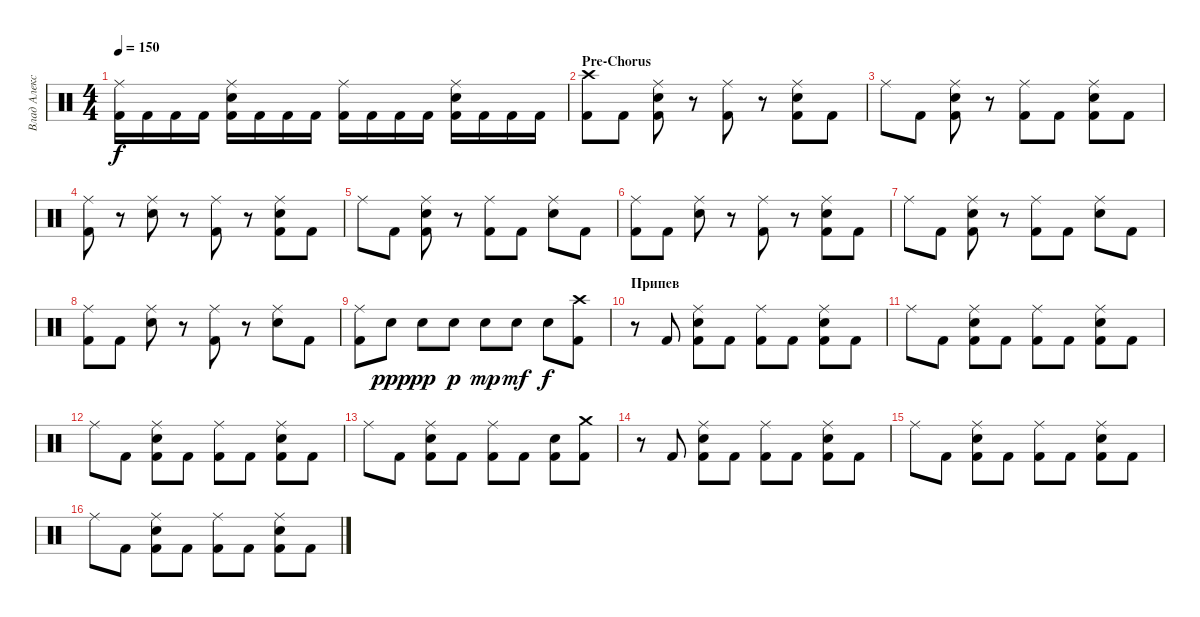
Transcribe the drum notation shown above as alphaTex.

\track ("Влад Алексеенко" "Влад Алекс") {instrument percussion}
\staff {score}
\articulation defaults
\ts (4 4)
\tempo 150
\clef neutral
\ks c
("Ride (middle)" "Kick (hit) 2").16{dy f} "Kick (hit) 2".16 "Kick (hit) 2".16 "Kick (hit) 2".16 ("Ride (middle)" "Electric Snare (hit)" "Kick (hit) 2").16 "Kick (hit) 2".16 "Kick (hit) 2".16 "Kick (hit) 2".16 ("Ride (middle)" "Kick (hit) 2").16 "Kick (hit) 2".16 "Kick (hit) 2".16 "Kick (hit) 2".16 ("Ride (middle)" "Electric Snare (hit)" "Kick (hit) 2").16 "Kick (hit) 2".16 "Kick (hit) 2".16 "Kick (hit) 2".16 |
\section ("" "Pre-Chorus")
("Crash high (hit)" "Kick (hit) 2").8 "Kick (hit) 2".8 ("Ride (middle)" "Electric Snare (hit)" "Kick (hit) 2").8 r.8 ("Ride (middle)" "Kick (hit) 2").8 r.8 ("Ride (middle)" "Electric Snare (hit)" "Kick (hit) 2").8 "Kick (hit) 2".8 |
"Ride (middle)".8 "Kick (hit) 2".8 ("Ride (middle)" "Electric Snare (hit)" "Kick (hit) 2").8 r.8 ("Ride (middle)" "Kick (hit) 2").8 "Kick (hit) 2".8 ("Ride (middle)" "Electric Snare (hit)" "Kick (hit) 2").8 "Kick (hit) 2".8 |
("Ride (middle)" "Kick (hit) 2").8 r.8 ("Ride (middle)" "Electric Snare (hit)").8 r.8 ("Ride (middle)" "Kick (hit) 2").8 r.8 ("Ride (middle)" "Electric Snare (hit)" "Kick (hit) 2").8 "Kick (hit) 2".8 |
"Ride (middle)".8 "Kick (hit) 2".8 ("Ride (middle)" "Electric Snare (hit)" "Kick (hit) 2").8 r.8 ("Ride (middle)" "Kick (hit) 2").8 "Kick (hit) 2".8 ("Ride (middle)" "Electric Snare (hit)").8 "Kick (hit) 2".8 |
("Ride (middle)" "Kick (hit) 2").8 "Kick (hit) 2".8 ("Ride (middle)" "Electric Snare (hit)").8 r.8 ("Ride (middle)" "Kick (hit) 2").8 r.8 ("Ride (middle)" "Electric Snare (hit)" "Kick (hit) 2").8 "Kick (hit) 2".8 |
"Ride (middle)".8 "Kick (hit) 2".8 ("Ride (middle)" "Electric Snare (hit)" "Kick (hit) 2").8 r.8 ("Ride (middle)" "Kick (hit) 2").8 "Kick (hit) 2".8 ("Ride (middle)" "Electric Snare (hit)").8 "Kick (hit) 2".8 |
("Ride (middle)" "Kick (hit) 2").8 "Kick (hit) 2".8 ("Ride (middle)" "Electric Snare (hit)").8 r.8 ("Ride (middle)" "Kick (hit) 2").8 r.8 ("Ride (middle)" "Electric Snare (hit)").8 "Kick (hit) 2".8 |
("Ride (middle)" "Kick (hit) 2").8 "Electric Snare (hit)".8{dy ppp} "Electric Snare (hit)".8{dy pp} "Electric Snare (hit)".8{dy p} "Electric Snare (hit)".8{dy mp} "Electric Snare (hit)".8{dy mf} "Electric Snare (hit)".8{dy f} ("Crash high (hit)" "Kick (hit) 2").8 |
\section ("" "Припев")
r.8 "Kick (hit) 2".8 ("Ride (middle)" "Electric Snare (hit)" "Kick (hit) 2").8 "Kick (hit) 2".8 ("Ride (middle)" "Kick (hit) 2").8 "Kick (hit) 2".8 ("Ride (middle)" "Electric Snare (hit)" "Kick (hit) 2").8 "Kick (hit) 2".8 |
"Ride (middle)".8 "Kick (hit) 2".8 ("Ride (middle)" "Electric Snare (hit)" "Kick (hit) 2").8 "Kick (hit) 2".8 ("Ride (middle)" "Kick (hit) 2").8 "Kick (hit) 2".8 ("Ride (middle)" "Electric Snare (hit)" "Kick (hit) 2").8 "Kick (hit) 2".8 |
"Ride (middle)".8 "Kick (hit) 2".8 ("Ride (middle)" "Electric Snare (hit)" "Kick (hit) 2").8 "Kick (hit) 2".8 ("Ride (middle)" "Kick (hit) 2").8 "Kick (hit) 2".8 ("Ride (middle)" "Electric Snare (hit)" "Kick (hit) 2").8 "Kick (hit) 2".8 |
"Ride (middle)".8 "Kick (hit) 2".8 ("Ride (middle)" "Electric Snare (hit)" "Kick (hit) 2").8 "Kick (hit) 2".8 ("Ride (middle)" "Kick (hit) 2").8 "Kick (hit) 2".8 ("Electric Snare (hit)" "Kick (hit) 2").8 ("Crash medium (hit)" "Kick (hit) 2").8 |
r.8 "Kick (hit) 2".8 ("Ride (middle)" "Electric Snare (hit)" "Kick (hit) 2").8 "Kick (hit) 2".8 ("Ride (middle)" "Kick (hit) 2").8 "Kick (hit) 2".8 ("Ride (middle)" "Electric Snare (hit)" "Kick (hit) 2").8 "Kick (hit) 2".8 |
"Ride (middle)".8 "Kick (hit) 2".8 ("Ride (middle)" "Electric Snare (hit)" "Kick (hit) 2").8 "Kick (hit) 2".8 ("Ride (middle)" "Kick (hit) 2").8 "Kick (hit) 2".8 ("Ride (middle)" "Electric Snare (hit)" "Kick (hit) 2").8 "Kick (hit) 2".8 |
"Ride (middle)".8 "Kick (hit) 2".8 ("Ride (middle)" "Electric Snare (hit)" "Kick (hit) 2").8 "Kick (hit) 2".8 ("Ride (middle)" "Kick (hit) 2").8 "Kick (hit) 2".8 ("Ride (middle)" "Electric Snare (hit)" "Kick (hit) 2").8 "Kick (hit) 2".8
